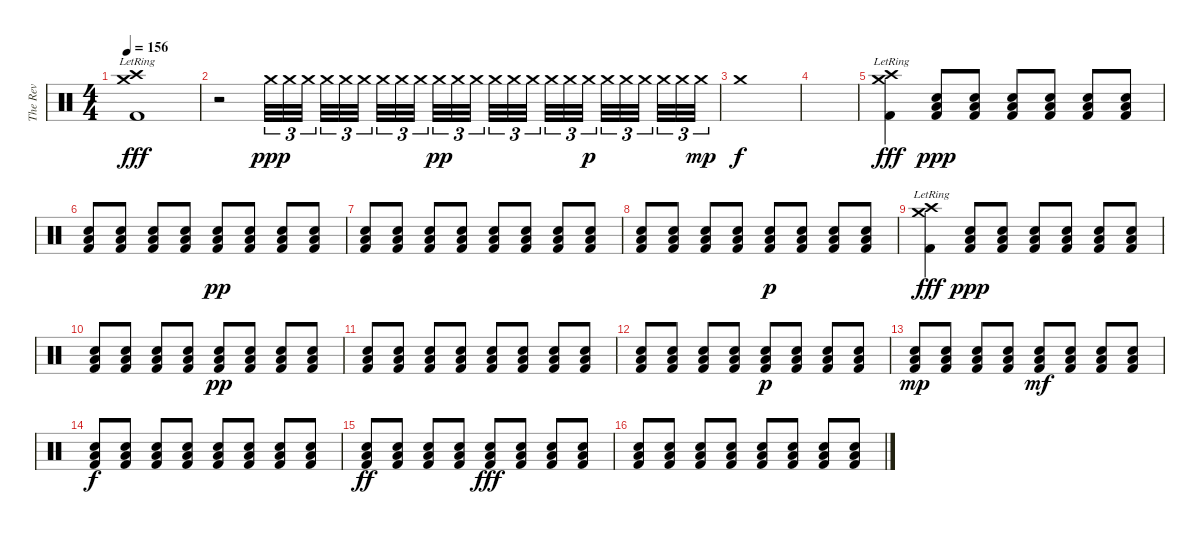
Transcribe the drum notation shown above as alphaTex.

\track ("The Rev" "The Rev") {instrument percussion}
\staff {score}
\articulation defaults
\ts (4 4)
\tempo 156
\clef neutral
\ks c
("Kick (hit) 2" "Crash high (hit)"{lr} "Crash medium (hit)"{lr}).1{dy fff} |
r.2 "Crash medium (hit)".32{tu (3 2) dy ppp} "Crash medium (hit)".32{tu (3 2)} "Crash medium (hit)".32{tu (3 2)} "Crash medium (hit)".32{tu (3 2)} "Crash medium (hit)".32{tu (3 2)} "Crash medium (hit)".32{tu (3 2)} "Crash medium (hit)".32{tu (3 2)} "Crash medium (hit)".32{tu (3 2)} "Crash medium (hit)".32{tu (3 2)} "Crash medium (hit)".32{tu (3 2) dy pp} "Crash medium (hit)".32{tu (3 2)} "Crash medium (hit)".32{tu (3 2)} "Crash medium (hit)".32{tu (3 2)} "Crash medium (hit)".32{tu (3 2)} "Crash medium (hit)".32{tu (3 2)} "Crash medium (hit)".32{tu (3 2)} "Crash medium (hit)".32{tu (3 2)} "Crash medium (hit)".32{tu (3 2) dy p} "Crash medium (hit)".32{tu (3 2)} "Crash medium (hit)".32{tu (3 2)} "Crash medium (hit)".32{tu (3 2)} "Crash medium (hit)".32{tu (3 2)} "Crash medium (hit)".32{tu (3 2)} "Crash medium (hit)".32{tu (3 2) dy mp} |
"Crash medium (hit)".1{dy f} |
|
("Kick (hit) 2" "Crash high (hit)"{lr} "Crash medium (hit)"{lr}).4{dy fff} ("Low Tom (hit)" "Electric Snare (hit)" "Kick (hit) 2").8{dy ppp} ("Low Tom (hit)" "Electric Snare (hit)" "Kick (hit) 2").8 ("Low Tom (hit)" "Electric Snare (hit)" "Kick (hit) 2").8 ("Low Tom (hit)" "Electric Snare (hit)" "Kick (hit) 2").8 ("Low Tom (hit)" "Electric Snare (hit)" "Kick (hit) 2").8 ("Low Tom (hit)" "Electric Snare (hit)" "Kick (hit) 2").8 |
("Low Tom (hit)" "Electric Snare (hit)" "Kick (hit) 2").8 ("Low Tom (hit)" "Electric Snare (hit)" "Kick (hit) 2").8 ("Low Tom (hit)" "Electric Snare (hit)" "Kick (hit) 2").8 ("Low Tom (hit)" "Electric Snare (hit)" "Kick (hit) 2").8 ("Low Tom (hit)" "Electric Snare (hit)" "Kick (hit) 2").8{dy pp} ("Low Tom (hit)" "Electric Snare (hit)" "Kick (hit) 2").8 ("Low Tom (hit)" "Electric Snare (hit)" "Kick (hit) 2").8 ("Low Tom (hit)" "Electric Snare (hit)" "Kick (hit) 2").8 |
("Low Tom (hit)" "Electric Snare (hit)" "Kick (hit) 2").8 ("Low Tom (hit)" "Electric Snare (hit)" "Kick (hit) 2").8 ("Low Tom (hit)" "Electric Snare (hit)" "Kick (hit) 2").8 ("Low Tom (hit)" "Electric Snare (hit)" "Kick (hit) 2").8 ("Low Tom (hit)" "Electric Snare (hit)" "Kick (hit) 2").8 ("Low Tom (hit)" "Electric Snare (hit)" "Kick (hit) 2").8 ("Low Tom (hit)" "Electric Snare (hit)" "Kick (hit) 2").8 ("Low Tom (hit)" "Electric Snare (hit)" "Kick (hit) 2").8 |
("Low Tom (hit)" "Electric Snare (hit)" "Kick (hit) 2").8 ("Low Tom (hit)" "Electric Snare (hit)" "Kick (hit) 2").8 ("Low Tom (hit)" "Electric Snare (hit)" "Kick (hit) 2").8 ("Low Tom (hit)" "Electric Snare (hit)" "Kick (hit) 2").8 ("Low Tom (hit)" "Electric Snare (hit)" "Kick (hit) 2").8{dy p} ("Low Tom (hit)" "Electric Snare (hit)" "Kick (hit) 2").8 ("Low Tom (hit)" "Electric Snare (hit)" "Kick (hit) 2").8 ("Low Tom (hit)" "Electric Snare (hit)" "Kick (hit) 2").8 |
("Kick (hit) 2" "Crash high (hit)"{lr} "Crash medium (hit)"{lr}).4{dy fff} ("Low Tom (hit)" "Electric Snare (hit)" "Kick (hit) 2").8{dy ppp} ("Low Tom (hit)" "Electric Snare (hit)" "Kick (hit) 2").8 ("Low Tom (hit)" "Electric Snare (hit)" "Kick (hit) 2").8 ("Low Tom (hit)" "Electric Snare (hit)" "Kick (hit) 2").8 ("Low Tom (hit)" "Electric Snare (hit)" "Kick (hit) 2").8 ("Low Tom (hit)" "Electric Snare (hit)" "Kick (hit) 2").8 |
("Low Tom (hit)" "Electric Snare (hit)" "Kick (hit) 2").8 ("Low Tom (hit)" "Electric Snare (hit)" "Kick (hit) 2").8 ("Low Tom (hit)" "Electric Snare (hit)" "Kick (hit) 2").8 ("Low Tom (hit)" "Electric Snare (hit)" "Kick (hit) 2").8 ("Low Tom (hit)" "Electric Snare (hit)" "Kick (hit) 2").8{dy pp} ("Low Tom (hit)" "Electric Snare (hit)" "Kick (hit) 2").8 ("Low Tom (hit)" "Electric Snare (hit)" "Kick (hit) 2").8 ("Low Tom (hit)" "Electric Snare (hit)" "Kick (hit) 2").8 |
("Low Tom (hit)" "Electric Snare (hit)" "Kick (hit) 2").8 ("Low Tom (hit)" "Electric Snare (hit)" "Kick (hit) 2").8 ("Low Tom (hit)" "Electric Snare (hit)" "Kick (hit) 2").8 ("Low Tom (hit)" "Electric Snare (hit)" "Kick (hit) 2").8 ("Low Tom (hit)" "Electric Snare (hit)" "Kick (hit) 2").8 ("Low Tom (hit)" "Electric Snare (hit)" "Kick (hit) 2").8 ("Low Tom (hit)" "Electric Snare (hit)" "Kick (hit) 2").8 ("Low Tom (hit)" "Electric Snare (hit)" "Kick (hit) 2").8 |
("Low Tom (hit)" "Electric Snare (hit)" "Kick (hit) 2").8 ("Low Tom (hit)" "Electric Snare (hit)" "Kick (hit) 2").8 ("Low Tom (hit)" "Electric Snare (hit)" "Kick (hit) 2").8 ("Low Tom (hit)" "Electric Snare (hit)" "Kick (hit) 2").8 ("Low Tom (hit)" "Electric Snare (hit)" "Kick (hit) 2").8{dy p} ("Low Tom (hit)" "Electric Snare (hit)" "Kick (hit) 2").8 ("Low Tom (hit)" "Electric Snare (hit)" "Kick (hit) 2").8 ("Low Tom (hit)" "Electric Snare (hit)" "Kick (hit) 2").8 |
("Low Tom (hit)" "Electric Snare (hit)" "Kick (hit) 2").8{dy mp} ("Low Tom (hit)" "Electric Snare (hit)" "Kick (hit) 2").8 ("Low Tom (hit)" "Electric Snare (hit)" "Kick (hit) 2").8 ("Low Tom (hit)" "Electric Snare (hit)" "Kick (hit) 2").8 ("Low Tom (hit)" "Electric Snare (hit)" "Kick (hit) 2").8{dy mf} ("Low Tom (hit)" "Electric Snare (hit)" "Kick (hit) 2").8 ("Low Tom (hit)" "Electric Snare (hit)" "Kick (hit) 2").8 ("Low Tom (hit)" "Electric Snare (hit)" "Kick (hit) 2").8 |
("Low Tom (hit)" "Electric Snare (hit)" "Kick (hit) 2").8{dy f} ("Low Tom (hit)" "Electric Snare (hit)" "Kick (hit) 2").8 ("Low Tom (hit)" "Electric Snare (hit)" "Kick (hit) 2").8 ("Low Tom (hit)" "Electric Snare (hit)" "Kick (hit) 2").8 ("Low Tom (hit)" "Electric Snare (hit)" "Kick (hit) 2").8 ("Low Tom (hit)" "Electric Snare (hit)" "Kick (hit) 2").8 ("Low Tom (hit)" "Electric Snare (hit)" "Kick (hit) 2").8 ("Low Tom (hit)" "Electric Snare (hit)" "Kick (hit) 2").8 |
("Low Tom (hit)" "Electric Snare (hit)" "Kick (hit) 2").8{dy ff} ("Low Tom (hit)" "Electric Snare (hit)" "Kick (hit) 2").8 ("Low Tom (hit)" "Electric Snare (hit)" "Kick (hit) 2").8 ("Low Tom (hit)" "Electric Snare (hit)" "Kick (hit) 2").8 ("Low Tom (hit)" "Electric Snare (hit)" "Kick (hit) 2").8{dy fff} ("Low Tom (hit)" "Electric Snare (hit)" "Kick (hit) 2").8 ("Low Tom (hit)" "Electric Snare (hit)" "Kick (hit) 2").8 ("Low Tom (hit)" "Electric Snare (hit)" "Kick (hit) 2").8 |
("Low Tom (hit)" "Electric Snare (hit)" "Kick (hit) 2").8 ("Low Tom (hit)" "Electric Snare (hit)" "Kick (hit) 2").8 ("Low Tom (hit)" "Electric Snare (hit)" "Kick (hit) 2").8 ("Low Tom (hit)" "Electric Snare (hit)" "Kick (hit) 2").8 ("Low Tom (hit)" "Electric Snare (hit)" "Kick (hit) 2").8 ("Low Tom (hit)" "Electric Snare (hit)" "Kick (hit) 2").8 ("Low Tom (hit)" "Electric Snare (hit)" "Kick (hit) 2").8 ("Low Tom (hit)" "Electric Snare (hit)" "Kick (hit) 2").8
